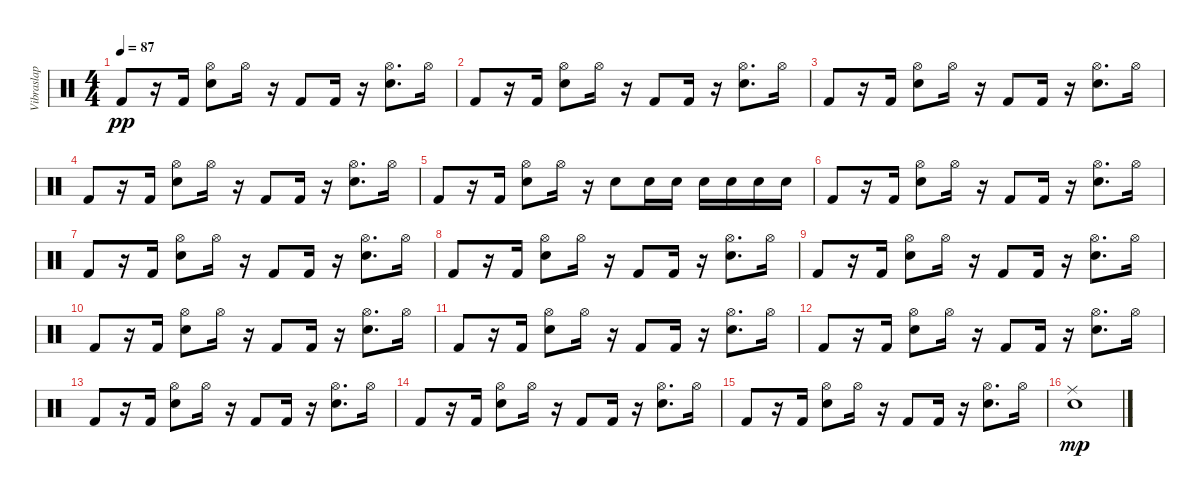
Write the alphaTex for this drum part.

\track ("Vibraslap" "Vibraslap") {instrument percussion}
\staff {score}
\articulation defaults
\ts (4 4)
\tempo 87
\clef neutral
\ks c "Kick (hit) 2".8{dy pp}
r.16 "Kick (hit) 2".16 ("Snare (hit) 2" "Hi-Hat (open)").8 "Hi-Hat (open)".16 r.16 "Kick (hit) 2".8 "Kick (hit) 2".16 r.16 ("Hi-Hat (open)" "Snare (hit) 2").8{d} "Hi-Hat (open)".16 |
"Kick (hit) 2".8 r.16 "Kick (hit) 2".16 ("Snare (hit) 2" "Hi-Hat (open)").8 "Hi-Hat (open)".16 r.16 "Kick (hit) 2".8 "Kick (hit) 2".16 r.16 ("Hi-Hat (open)" "Snare (hit) 2").8{d} "Hi-Hat (open)".16 |
"Kick (hit) 2".8 r.16 "Kick (hit) 2".16 ("Snare (hit) 2" "Hi-Hat (open)").8 "Hi-Hat (open)".16 r.16 "Kick (hit) 2".8 "Kick (hit) 2".16 r.16 ("Hi-Hat (open)" "Snare (hit) 2").8{d} "Hi-Hat (open)".16 |
"Kick (hit) 2".8 r.16 "Kick (hit) 2".16 ("Snare (hit) 2" "Hi-Hat (open)").8 "Hi-Hat (open)".16 r.16 "Kick (hit) 2".8 "Kick (hit) 2".16 r.16 ("Hi-Hat (open)" "Snare (hit) 2").8{d} "Hi-Hat (open)".16 |
"Kick (hit) 2".8 r.16 "Kick (hit) 2".16 ("Snare (hit) 2" "Hi-Hat (open)").8 "Hi-Hat (open)".16 r.16 "Snare (hit) 2".8 "Snare (hit) 2".16 "Snare (hit) 2".16 "Snare (hit) 2".16 "Snare (hit) 2".16 "Snare (hit) 2".16 "Snare (hit) 2".16 |
"Kick (hit) 2".8 r.16 "Kick (hit) 2".16 ("Snare (hit) 2" "Hi-Hat (open)").8 "Hi-Hat (open)".16 r.16 "Kick (hit) 2".8 "Kick (hit) 2".16 r.16 ("Hi-Hat (open)" "Snare (hit) 2").8{d} "Hi-Hat (open)".16 |
"Kick (hit) 2".8 r.16 "Kick (hit) 2".16 ("Snare (hit) 2" "Hi-Hat (open)").8 "Hi-Hat (open)".16 r.16 "Kick (hit) 2".8 "Kick (hit) 2".16 r.16 ("Hi-Hat (open)" "Snare (hit) 2").8{d} "Hi-Hat (open)".16 |
"Kick (hit) 2".8 r.16 "Kick (hit) 2".16 ("Snare (hit) 2" "Hi-Hat (open)").8 "Hi-Hat (open)".16 r.16 "Kick (hit) 2".8 "Kick (hit) 2".16 r.16 ("Hi-Hat (open)" "Snare (hit) 2").8{d} "Hi-Hat (open)".16 |
"Kick (hit) 2".8 r.16 "Kick (hit) 2".16 ("Snare (hit) 2" "Hi-Hat (open)").8 "Hi-Hat (open)".16 r.16 "Kick (hit) 2".8 "Kick (hit) 2".16 r.16 ("Hi-Hat (open)" "Snare (hit) 2").8{d} "Hi-Hat (open)".16 |
"Kick (hit) 2".8 r.16 "Kick (hit) 2".16 ("Snare (hit) 2" "Hi-Hat (open)").8 "Hi-Hat (open)".16 r.16 "Kick (hit) 2".8 "Kick (hit) 2".16 r.16 ("Hi-Hat (open)" "Snare (hit) 2").8{d} "Hi-Hat (open)".16 |
"Kick (hit) 2".8 r.16 "Kick (hit) 2".16 ("Snare (hit) 2" "Hi-Hat (open)").8 "Hi-Hat (open)".16 r.16 "Kick (hit) 2".8 "Kick (hit) 2".16 r.16 ("Hi-Hat (open)" "Snare (hit) 2").8{d} "Hi-Hat (open)".16 |
"Kick (hit) 2".8 r.16 "Kick (hit) 2".16 ("Snare (hit) 2" "Hi-Hat (open)").8 "Hi-Hat (open)".16 r.16 "Kick (hit) 2".8 "Kick (hit) 2".16 r.16 ("Hi-Hat (open)" "Snare (hit) 2").8{d} "Hi-Hat (open)".16 |
"Kick (hit) 2".8 r.16 "Kick (hit) 2".16 ("Snare (hit) 2" "Hi-Hat (open)").8 "Hi-Hat (open)".16 r.16 "Kick (hit) 2".8 "Kick (hit) 2".16 r.16 ("Hi-Hat (open)" "Snare (hit) 2").8{d} "Hi-Hat (open)".16 |
"Kick (hit) 2".8 r.16 "Kick (hit) 2".16 ("Snare (hit) 2" "Hi-Hat (open)").8 "Hi-Hat (open)".16 r.16 "Kick (hit) 2".8 "Kick (hit) 2".16 r.16 ("Hi-Hat (open)" "Snare (hit) 2").8{d} "Hi-Hat (open)".16 |
"Kick (hit) 2".8 r.16 "Kick (hit) 2".16 ("Snare (hit) 2" "Hi-Hat (open)").8 "Hi-Hat (open)".16 r.16 "Kick (hit) 2".8 "Kick (hit) 2".16 r.16 ("Hi-Hat (open)" "Snare (hit) 2").8{d} "Hi-Hat (open)".16 |
("Snare (hit) 2" "Ride (middle)").1{dy mp}
